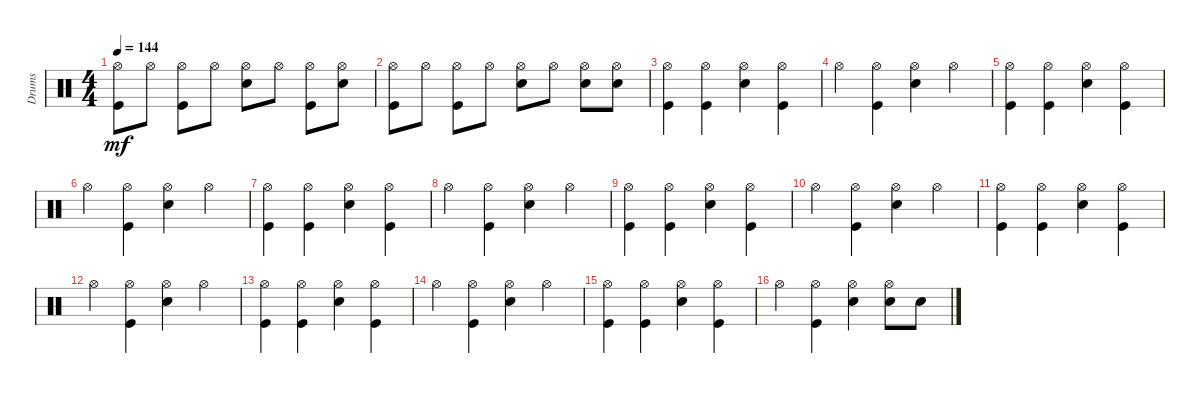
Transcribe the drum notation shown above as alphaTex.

\track ("Drums               " "Drums     ") {instrument percussion}
\staff {score}
\articulation defaults
\ts (4 4)
\tempo 144
\clef neutral
\ks c
("Kick (hit)" "Hi-Hat (open)").8{dy mf} "Hi-Hat (open)".8 ("Kick (hit)" "Hi-Hat (open)").8 "Hi-Hat (open)".8 ("Snare (hit) 2" "Hi-Hat (open)").8 "Hi-Hat (open)".8 ("Hi-Hat (open)" "Kick (hit)").8 ("Snare (hit) 2" "Hi-Hat (open)").8 |
("Kick (hit)" "Hi-Hat (open)").8 "Hi-Hat (open)".8 ("Kick (hit)" "Hi-Hat (open)").8 "Hi-Hat (open)".8 ("Snare (hit) 2" "Hi-Hat (open)").8 "Hi-Hat (open)".8 ("Hi-Hat (open)" "Snare (hit) 2").8 ("Snare (hit) 2" "Hi-Hat (open)").8 |
("Kick (hit)" "Hi-Hat (open)").4 ("Kick (hit)" "Hi-Hat (open)").4 ("Snare (hit) 2" "Hi-Hat (open)").4 ("Kick (hit)" "Hi-Hat (open)").4 |
"Hi-Hat (open)".4 ("Kick (hit)" "Hi-Hat (open)").4 ("Snare (hit) 2" "Hi-Hat (open)").4 "Hi-Hat (open)".4 |
("Kick (hit)" "Hi-Hat (open)").4 ("Kick (hit)" "Hi-Hat (open)").4 ("Snare (hit) 2" "Hi-Hat (open)").4 ("Kick (hit)" "Hi-Hat (open)").4 |
"Hi-Hat (open)".4 ("Kick (hit)" "Hi-Hat (open)").4 ("Snare (hit) 2" "Hi-Hat (open)").4 "Hi-Hat (open)".4 |
("Kick (hit)" "Hi-Hat (open)").4 ("Kick (hit)" "Hi-Hat (open)").4 ("Snare (hit) 2" "Hi-Hat (open)").4 ("Kick (hit)" "Hi-Hat (open)").4 |
"Hi-Hat (open)".4 ("Kick (hit)" "Hi-Hat (open)").4 ("Snare (hit) 2" "Hi-Hat (open)").4 "Hi-Hat (open)".4 |
("Kick (hit)" "Hi-Hat (open)").4 ("Kick (hit)" "Hi-Hat (open)").4 ("Snare (hit) 2" "Hi-Hat (open)").4 ("Kick (hit)" "Hi-Hat (open)").4 |
"Hi-Hat (open)".4 ("Kick (hit)" "Hi-Hat (open)").4 ("Snare (hit) 2" "Hi-Hat (open)").4 "Hi-Hat (open)".4 |
("Kick (hit)" "Hi-Hat (open)").4 ("Kick (hit)" "Hi-Hat (open)").4 ("Snare (hit) 2" "Hi-Hat (open)").4 ("Kick (hit)" "Hi-Hat (open)").4 |
"Hi-Hat (open)".4 ("Kick (hit)" "Hi-Hat (open)").4 ("Snare (hit) 2" "Hi-Hat (open)").4 "Hi-Hat (open)".4 |
("Kick (hit)" "Hi-Hat (open)").4 ("Kick (hit)" "Hi-Hat (open)").4 ("Snare (hit) 2" "Hi-Hat (open)").4 ("Kick (hit)" "Hi-Hat (open)").4 |
"Hi-Hat (open)".4 ("Kick (hit)" "Hi-Hat (open)").4 ("Snare (hit) 2" "Hi-Hat (open)").4 "Hi-Hat (open)".4 |
("Kick (hit)" "Hi-Hat (open)").4 ("Kick (hit)" "Hi-Hat (open)").4 ("Snare (hit) 2" "Hi-Hat (open)").4 ("Kick (hit)" "Hi-Hat (open)").4 |
"Hi-Hat (open)".4 ("Kick (hit)" "Hi-Hat (open)").4 ("Hi-Hat (open)" "Snare (hit) 2").4 ("Hi-Hat (open)" "Snare (hit) 2").8 "Snare (hit) 2".8
